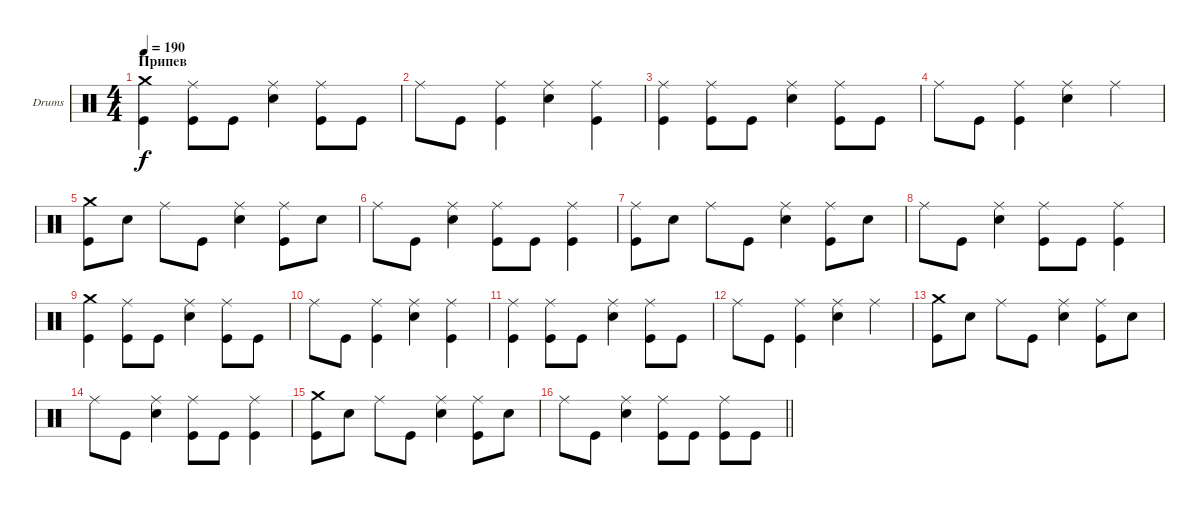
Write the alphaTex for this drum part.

\bracketExtendMode groupsimilarinstruments
\firstSystemTrackNameOrientation horizontal
\otherSystemsTrackNameOrientation horizontal
\track ("Максим Удалов" "Drums") {instrument percussion}
\staff {score}
\articulation defaults
\ts (4 4)
\section ("" "Припев")
\tempo 190
\clef neutral
\ks c
("Kick (hit)" "Crash medium (hit)").4{dy f} ("Kick (hit)" "Ride (middle)").8 "Kick (hit)".8 ("Snare (hit) 2" "Ride (middle)").4 ("Kick (hit)" "Ride (middle)").8 "Kick (hit)".8 |
"Ride (middle)".8 "Kick (hit)".8 ("Kick (hit)" "Ride (middle)").4 ("Snare (hit) 2" "Ride (middle)").4 ("Kick (hit)" "Ride (middle)").4 |
("Kick (hit)" "Ride (middle)").4 ("Kick (hit)" "Ride (middle)").8 "Kick (hit)".8 ("Snare (hit) 2" "Ride (middle)").4 ("Kick (hit)" "Ride (middle)").8 "Kick (hit)".8 |
"Ride (middle)".8 "Kick (hit)".8 ("Kick (hit)" "Ride (middle)").4 ("Snare (hit) 2" "Ride (middle)").4 "Ride (middle)".4 |
("Kick (hit)" "Crash medium (hit)").8 "Snare (hit) 2".8 "Ride (middle)".8 "Kick (hit)".8 ("Snare (hit) 2" "Ride (middle)").4 ("Kick (hit)" "Ride (middle)").8 "Snare (hit) 2".8 |
"Ride (middle)".8 "Kick (hit)".8 ("Snare (hit) 2" "Ride (middle)").4 ("Kick (hit)" "Ride (middle)").8 "Kick (hit)".8 ("Kick (hit)" "Ride (middle)").4 |
("Kick (hit)" "Ride (middle)").8 "Snare (hit) 2".8 "Ride (middle)".8 "Kick (hit)".8 ("Snare (hit) 2" "Ride (middle)").4 ("Kick (hit)" "Ride (middle)").8 "Snare (hit) 2".8 |
"Ride (middle)".8 "Kick (hit)".8 ("Snare (hit) 2" "Ride (middle)").4 ("Kick (hit)" "Ride (middle)").8 "Kick (hit)".8 ("Kick (hit)" "Ride (middle)").4 |
("Kick (hit)" "Crash medium (hit)").4 ("Kick (hit)" "Ride (middle)").8 "Kick (hit)".8 ("Snare (hit) 2" "Ride (middle)").4 ("Kick (hit)" "Ride (middle)").8 "Kick (hit)".8 |
"Ride (middle)".8 "Kick (hit)".8 ("Kick (hit)" "Ride (middle)").4 ("Snare (hit) 2" "Ride (middle)").4 ("Kick (hit)" "Ride (middle)").4 |
("Kick (hit)" "Ride (middle)").4 ("Kick (hit)" "Ride (middle)").8 "Kick (hit)".8 ("Snare (hit) 2" "Ride (middle)").4 ("Kick (hit)" "Ride (middle)").8 "Kick (hit)".8 |
"Ride (middle)".8 "Kick (hit)".8 ("Kick (hit)" "Ride (middle)").4 ("Snare (hit) 2" "Ride (middle)").4 "Ride (middle)".4 |
("Kick (hit)" "Crash medium (hit)").8 "Snare (hit) 2".8 "Ride (middle)".8 "Kick (hit)".8 ("Snare (hit) 2" "Ride (middle)").4 ("Kick (hit)" "Ride (middle)").8 "Snare (hit) 2".8 |
"Ride (middle)".8 "Kick (hit)".8 ("Snare (hit) 2" "Ride (middle)").4 ("Kick (hit)" "Ride (middle)").8 "Kick (hit)".8 ("Kick (hit)" "Ride (middle)").4 |
("Kick (hit)" "Crash medium (hit)").8 "Snare (hit) 2".8 "Ride (middle)".8 "Kick (hit)".8 ("Snare (hit) 2" "Ride (middle)").4 ("Kick (hit)" "Ride (middle)").8 "Snare (hit) 2".8 |
\barLineRight lightlight "Ride (middle)".8 "Kick (hit)".8
("Snare (hit) 2" "Ride (middle)").4 ("Kick (hit)" "Ride (middle)").8 "Kick (hit)".8 ("Kick (hit)" "Ride (middle)").8 "Kick (hit)".8
